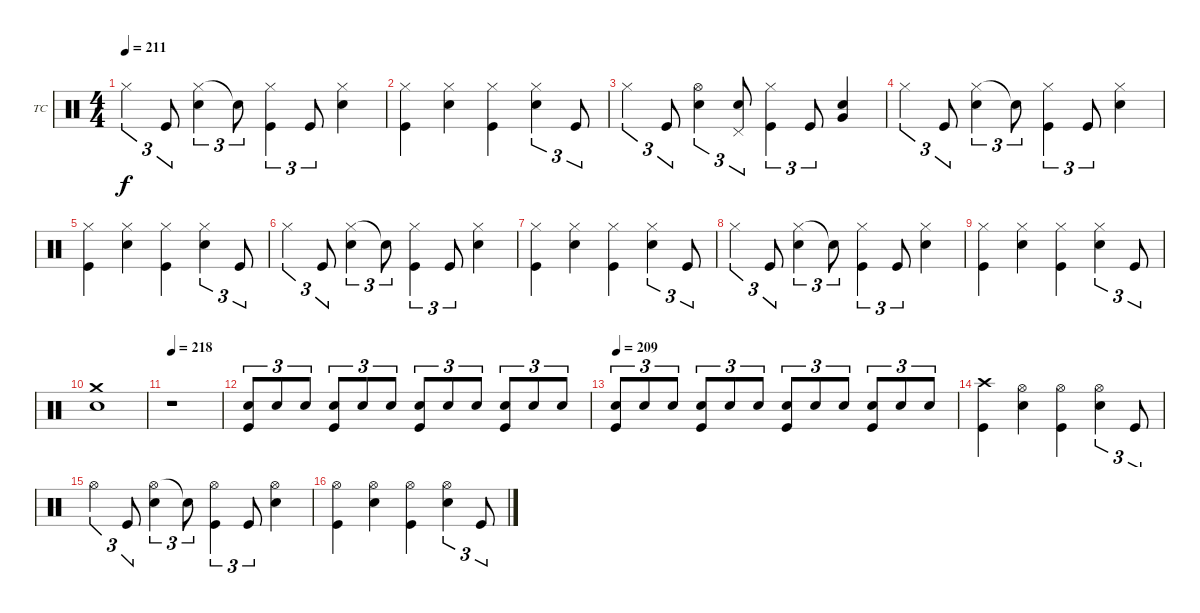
\defaultSystemsLayout 4
\bracketExtendMode groupsimilarinstruments
\firstSystemTrackNameOrientation horizontal
\otherSystemsTrackNameOrientation horizontal
\track ("Drums - Tre Cool" "TC") {instrument percussion}
\staff {score}
\articulation defaults
\ts (4 4)
\tempo 211
\clef neutral
\ks c "Hi-Hat (closed)".4{tu (3 2) dy f} "Kick (hit)".8{tu (3 2)}
("Hi-Hat (closed)" "Snare (hit) 2").4{tu (3 2)} "Snare (hit) 2"{t}.8{tu (3 2)} ("Hi-Hat (closed)" "Kick (hit)").4{tu (3 2)} "Kick (hit)".8{tu (3 2)} ("Hi-Hat (closed)" "Snare (hit) 2").4 |
("Hi-Hat (closed)" "Kick (hit)").4 ("Hi-Hat (closed)" "Snare (hit) 2").4 ("Hi-Hat (closed)" "Kick (hit)").4 ("Hi-Hat (closed)" "Snare (hit) 2").4{tu (3 2)} "Kick (hit)".8{tu (3 2)} |
"Hi-Hat (closed)".4{tu (3 2)} "Kick (hit)".8{tu (3 2)} ("Hi-Hat (open)" "Snare (hit) 2").4{tu (3 2)} ("Pedal Hi-Hat (hit)" "Snare (hit) 2").8{tu (3 2)} ("Hi-Hat (closed)" "Kick (hit)").4{tu (3 2)} "Kick (hit)".8{tu (3 2)} ("Very Low Tom (hit)" "Snare (hit) 2").4 |
"Hi-Hat (closed)".4{tu (3 2)} "Kick (hit)".8{tu (3 2)} ("Hi-Hat (closed)" "Snare (hit) 2").4{tu (3 2)} "Snare (hit) 2"{t}.8{tu (3 2)} ("Hi-Hat (closed)" "Kick (hit)").4{tu (3 2)} "Kick (hit)".8{tu (3 2)} ("Hi-Hat (closed)" "Snare (hit) 2").4 |
("Hi-Hat (closed)" "Kick (hit)").4 ("Hi-Hat (closed)" "Snare (hit) 2").4 ("Hi-Hat (closed)" "Kick (hit)").4 ("Hi-Hat (closed)" "Snare (hit) 2").4{tu (3 2)} "Kick (hit)".8{tu (3 2)} |
"Hi-Hat (closed)".4{tu (3 2)} "Kick (hit)".8{tu (3 2)} ("Hi-Hat (closed)" "Snare (hit) 2").4{tu (3 2)} "Snare (hit) 2"{t}.8{tu (3 2)} ("Hi-Hat (closed)" "Kick (hit)").4{tu (3 2)} "Kick (hit)".8{tu (3 2)} ("Hi-Hat (closed)" "Snare (hit) 2").4 |
("Hi-Hat (closed)" "Kick (hit)").4 ("Hi-Hat (closed)" "Snare (hit) 2").4 ("Hi-Hat (closed)" "Kick (hit)").4 ("Hi-Hat (closed)" "Snare (hit) 2").4{tu (3 2)} "Kick (hit)".8{tu (3 2)} |
"Hi-Hat (closed)".4{tu (3 2)} "Kick (hit)".8{tu (3 2)} ("Hi-Hat (closed)" "Snare (hit) 2").4{tu (3 2)} "Snare (hit) 2"{t}.8{tu (3 2)} ("Hi-Hat (closed)" "Kick (hit)").4{tu (3 2)} "Kick (hit)".8{tu (3 2)} ("Hi-Hat (closed)" "Snare (hit) 2").4 |
("Hi-Hat (closed)" "Kick (hit)").4 ("Hi-Hat (closed)" "Snare (hit) 2").4 ("Hi-Hat (closed)" "Kick (hit)").4 ("Hi-Hat (closed)" "Snare (hit) 2").4{tu (3 2)} "Kick (hit)".8{tu (3 2)} |
("Crash medium (hit)" "Snare (hit) 2").1 |
\tempo (218 0.0125)
r.1 |
("Snare (hit) 2" "Kick (hit)").8{tu (3 2)} "Snare (hit) 2".8{tu (3 2)} "Snare (hit) 2".8{tu (3 2)} ("Snare (hit) 2" "Kick (hit)").8{tu (3 2)} "Snare (hit) 2".8{tu (3 2)} "Snare (hit) 2".8{tu (3 2)} ("Snare (hit) 2" "Kick (hit)").8{tu (3 2)} "Snare (hit) 2".8{tu (3 2)} "Snare (hit) 2".8{tu (3 2)} ("Snare (hit) 2" "Kick (hit)").8{tu (3 2)} "Snare (hit) 2".8{tu (3 2)} "Snare (hit) 2".8{tu (3 2)} |
\tempo (209 0.00625)
("Snare (hit) 2" "Kick (hit)").8{tu (3 2)} "Snare (hit) 2".8{tu (3 2)} "Snare (hit) 2".8{tu (3 2)} ("Snare (hit) 2" "Kick (hit)").8{tu (3 2)} "Snare (hit) 2".8{tu (3 2)} "Snare (hit) 2".8{tu (3 2)} ("Snare (hit) 2" "Kick (hit)").8{tu (3 2)} "Snare (hit) 2".8{tu (3 2)} "Snare (hit) 2".8{tu (3 2)} ("Snare (hit) 2" "Kick (hit)").8{tu (3 2)} "Snare (hit) 2".8{tu (3 2)} "Snare (hit) 2".8{tu (3 2)} |
("Crash high (hit)" "Kick (hit)").4 ("Hi-Hat (open)" "Snare (hit) 2").4 ("Hi-Hat (open)" "Kick (hit)").4 ("Hi-Hat (open)" "Snare (hit) 2").4{tu (3 2)} "Kick (hit)".8{tu (3 2)} |
"Hi-Hat (open)".4{tu (3 2)} "Kick (hit)".8{tu (3 2)} ("Hi-Hat (open)" "Snare (hit) 2").4{tu (3 2)} "Snare (hit) 2"{t}.8{tu (3 2)} ("Hi-Hat (open)" "Kick (hit)").4{tu (3 2)} "Kick (hit)".8{tu (3 2)} ("Hi-Hat (open)" "Snare (hit) 2").4 |
("Hi-Hat (open)" "Kick (hit)").4 ("Hi-Hat (open)" "Snare (hit) 2").4 ("Hi-Hat (open)" "Kick (hit)").4 ("Hi-Hat (open)" "Snare (hit) 2").4{tu (3 2)} "Kick (hit)".8{tu (3 2)}
